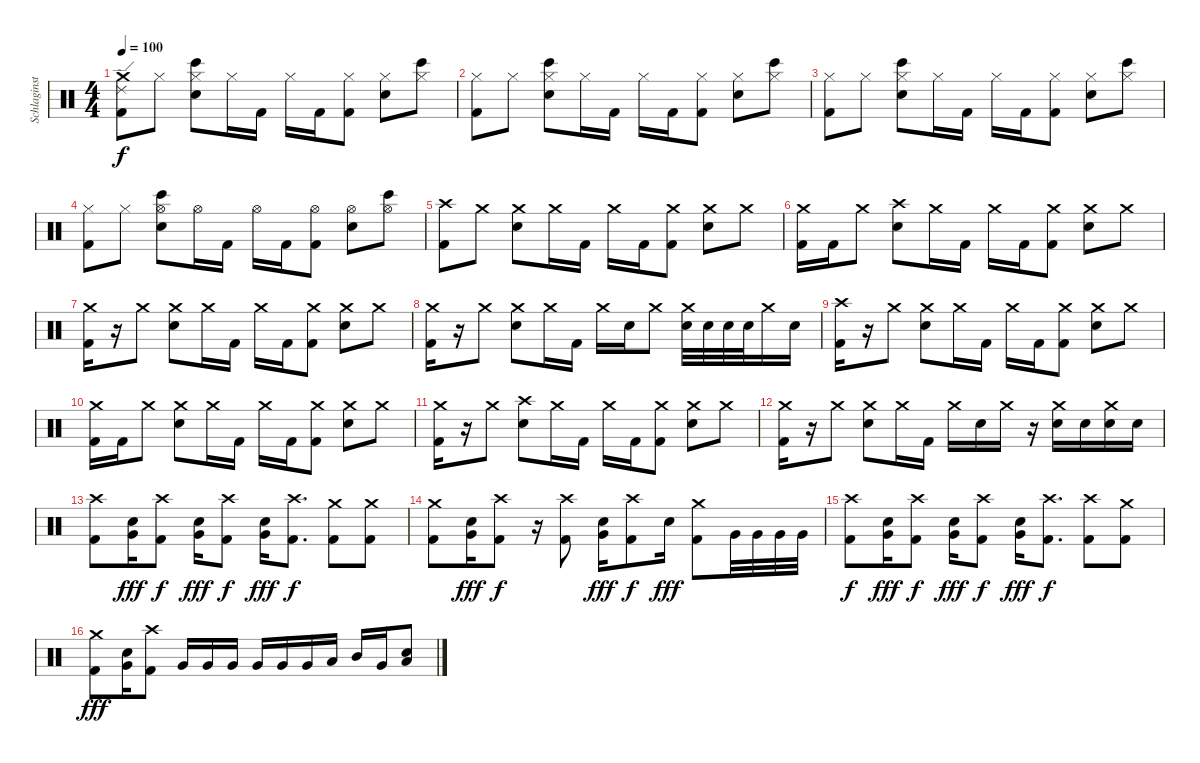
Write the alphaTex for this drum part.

\track ("Schlaginstrumente - Auswahl" "Schlaginst") {instrument percussion}
\staff {score}
\articulation defaults
\ts (4 4)
\tempo 100
\clef neutral
\ks c
("Crash medium (hit)" "Ride (edge) 2" "Kick (hit) 2").8{dy f} "Hi-Hat (closed)".8 ("Hi-Hat (closed)" "Bongo High (hit)" "Snare (hit) 2").8 "Hi-Hat (closed)".16 "Kick (hit) 2".16 "Hi-Hat (closed)".16 "Kick (hit) 2".16 ("Hi-Hat (closed)" "Kick (hit) 2").8 ("Hi-Hat (closed)" "Snare (hit) 2").8 ("Hi-Hat (closed)" "Bongo High (hit)").8 |
("Hi-Hat (closed)" "Kick (hit) 2").8 "Hi-Hat (closed)".8 ("Hi-Hat (closed)" "Bongo High (hit)" "Snare (hit) 2").8 "Hi-Hat (closed)".16 "Kick (hit) 2".16 "Hi-Hat (closed)".16 "Kick (hit) 2".16 ("Hi-Hat (closed)" "Kick (hit) 2").8 ("Hi-Hat (closed)" "Snare (hit) 2").8 ("Hi-Hat (closed)" "Bongo High (hit)").8 |
("Hi-Hat (closed)" "Kick (hit) 2").8 "Hi-Hat (closed)".8 ("Hi-Hat (closed)" "Bongo High (hit)" "Snare (hit) 2").8 "Hi-Hat (closed)".16 "Kick (hit) 2".16 "Hi-Hat (closed)".16 "Kick (hit) 2".16 ("Hi-Hat (closed)" "Kick (hit) 2").8 ("Hi-Hat (closed)" "Snare (hit) 2").8 ("Hi-Hat (closed)" "Bongo High (hit)").8 |
("Hi-Hat (closed)" "Kick (hit) 2").8 "Hi-Hat (closed)".8 ("Hi-Hat (open)" "Bongo High (hit)" "Snare (hit) 2").8 "Hi-Hat (open)".16 "Kick (hit) 2".16 "Hi-Hat (open)".16 "Kick (hit) 2".16 ("Hi-Hat (open)" "Kick (hit) 2").8 ("Hi-Hat (open)" "Snare (hit) 2").8 ("Hi-Hat (open)" "Bongo High (hit)").8 |
("Crash high (hit)" "Kick (hit) 2").8 "Crash medium (hit)".8 ("Crash medium (hit)" "Snare (hit) 2").8 "Crash medium (hit)".16 "Kick (hit) 2".16 "Crash medium (hit)".16 "Kick (hit) 2".16 ("Crash medium (hit)" "Kick (hit) 2").8 ("Crash medium (hit)" "Snare (hit) 2").8 "Crash medium (hit)".8 |
("Crash medium (hit)" "Kick (hit) 2").16 "Kick (hit) 2".16 "Crash medium (hit)".8 ("Crash high (hit)" "Snare (hit) 2").8 "Crash medium (hit)".16 "Kick (hit) 2".16 "Crash medium (hit)".16 "Kick (hit) 2".16 ("Crash medium (hit)" "Kick (hit) 2").8 ("Crash medium (hit)" "Snare (hit) 2").8 "Crash medium (hit)".8 |
("Crash medium (hit)" "Kick (hit) 2").16 r.16 "Crash medium (hit)".8 ("Crash medium (hit)" "Snare (hit) 2").8 "Crash medium (hit)".16 "Kick (hit) 2".16 "Crash medium (hit)".16 "Kick (hit) 2".16 ("Crash medium (hit)" "Kick (hit) 2").8 ("Crash medium (hit)" "Snare (hit) 2").8 "Crash medium (hit)".8 |
("Crash medium (hit)" "Kick (hit) 2").16 r.16 "Crash medium (hit)".8 ("Crash medium (hit)" "Snare (hit) 2").8 "Crash medium (hit)".16 "Kick (hit) 2".16 "Crash medium (hit)".16 "Snare (hit) 2".16 "Crash medium (hit)".8 ("Crash medium (hit)" "Snare (hit) 2").32 "Snare (hit) 2".32 "Snare (hit) 2".32 "Snare (hit) 2".32 "Crash medium (hit)".16 "Snare (hit) 2".16 |
("Crash high (hit)" "Kick (hit) 2").16 r.16 "Crash medium (hit)".8 ("Crash medium (hit)" "Snare (hit) 2").8 "Crash medium (hit)".16 "Kick (hit) 2".16 "Crash medium (hit)".16 "Kick (hit) 2".16 ("Crash medium (hit)" "Kick (hit) 2").8 ("Crash medium (hit)" "Snare (hit) 2").8 "Crash medium (hit)".8 |
("Crash medium (hit)" "Kick (hit) 2").16 "Kick (hit) 2".16 "Crash medium (hit)".8 ("Crash medium (hit)" "Snare (hit) 2").8 "Crash medium (hit)".16 "Kick (hit) 2".16 "Crash medium (hit)".16 "Kick (hit) 2".16 ("Crash medium (hit)" "Kick (hit) 2").8 ("Crash medium (hit)" "Snare (hit) 2").8 "Crash medium (hit)".8 |
("Crash medium (hit)" "Kick (hit) 2").16 r.16 "Crash medium (hit)".8 ("Crash high (hit)" "Snare (hit) 2").8 "Crash medium (hit)".16 "Kick (hit) 2".16 "Crash medium (hit)".16 "Kick (hit) 2".16 ("Crash medium (hit)" "Kick (hit) 2").8 ("Crash medium (hit)" "Snare (hit) 2").8 "Crash medium (hit)".8 |
("Crash medium (hit)" "Kick (hit) 2").16 r.16 "Crash medium (hit)".8 ("Crash medium (hit)" "Snare (hit) 2").8 "Crash medium (hit)".16 "Kick (hit) 2".16 "Crash medium (hit)".16 "Snare (hit) 2".16 "Crash medium (hit)".16 r.16 ("Crash medium (hit)" "Snare (hit) 2").16 "Snare (hit) 2".16 ("Crash medium (hit)" "Snare (hit) 2").16 "Snare (hit) 2".16 |
("Crash high (hit)" "Kick (hit) 2").8 ("Very Low Tom (hit)" "Snare (hit) 2").16{dy fff} ("Crash high (hit)" "Kick (hit) 2").8{dy f} ("Very Low Tom (hit)" "Snare (hit) 2").16{dy fff} ("Crash high (hit)" "Kick (hit) 2").8{dy f} ("Very Low Tom (hit)" "Snare (hit) 2").16{dy fff} ("Crash high (hit)" "Kick (hit) 2").8{d dy f} ("Crash medium (hit)" "Kick (hit) 2").8 ("Crash medium (hit)" "Kick (hit) 2").8 |
("Crash medium (hit)" "Kick (hit) 2").8 ("Very Low Tom (hit)" "Snare (hit) 2").16{dy fff} ("Crash high (hit)" "Kick (hit) 2").8{dy f} r.16 ("Crash high (hit)" "Kick (hit) 2").8 ("Very Low Tom (hit)" "Snare (hit) 2").16{dy fff} ("Crash high (hit)" "Kick (hit) 2").8{dy f} "Snare (hit) 2".16{dy fff} ("Crash medium (hit)" "Kick (hit) 2").8 "Very Low Tom (hit)".32 "Very Low Tom (hit)".32 "Very Low Tom (hit)".32 "Very Low Tom (hit)".32 |
("Crash high (hit)" "Kick (hit) 2").8{dy f} ("Very Low Tom (hit)" "Snare (hit) 2").16{dy fff} ("Crash high (hit)" "Kick (hit) 2").8{dy f} ("Very Low Tom (hit)" "Snare (hit) 2").16{dy fff} ("Crash high (hit)" "Kick (hit) 2").8{dy f} ("Very Low Tom (hit)" "Snare (hit) 2").16{dy fff} ("Crash high (hit)" "Kick (hit) 2").8{d dy f} ("Crash high (hit)" "Kick (hit) 2").8 ("Crash medium (hit)" "Kick (hit) 2").8 |
("Crash medium (hit)" "Kick (hit) 2").8{dy fff} ("Very Low Tom (hit)" "Snare (hit) 2").16 ("Crash high (hit)" "Kick (hit) 2").8 "Very Low Tom (hit)".16 "Very Low Tom (hit)".16 "Very Low Tom (hit)".16 "Very Low Tom (hit)".16 "Very Low Tom (hit)".16 "Very Low Tom (hit)".16 "Low Tom (hit)".16 "Mid Tom (hit)".16 "Very Low Tom (hit)".16 ("Low Floor Tom (hit)" "Snare (hit) 2").8
